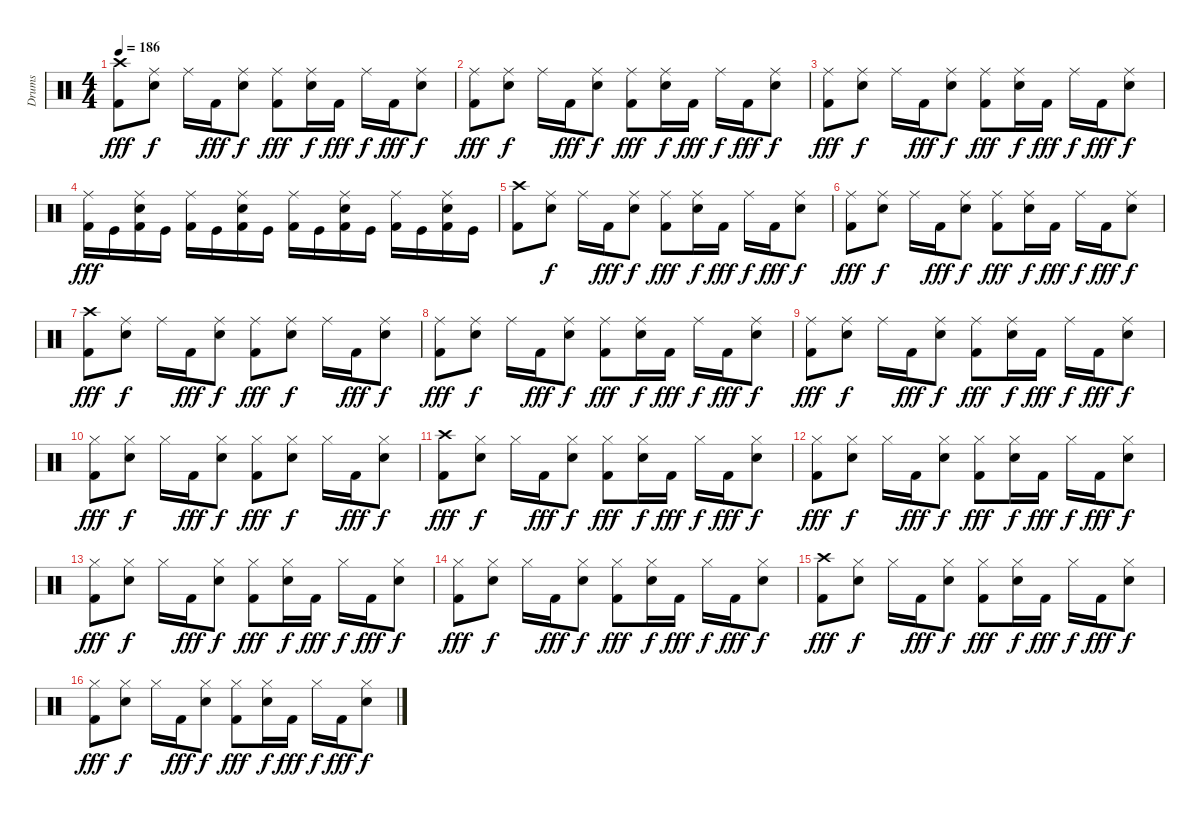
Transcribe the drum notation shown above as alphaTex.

\track ("Drums" "Drums") {instrument percussion}
\staff {score}
\articulation defaults
\ts (4 4)
\tempo 186
\clef neutral
\ks c
("Crash high (hit)" "Kick (hit) 2").8{dy fff} ("Ride (middle)" "Electric Snare (hit)").8{dy f} "Ride (middle)".16 "Kick (hit) 2".16{dy fff} ("Ride (middle)" "Electric Snare (hit)").8{dy f} ("Ride (middle)" "Kick (hit) 2").8{dy fff} ("Ride (middle)" "Electric Snare (hit)").16{dy f} "Kick (hit) 2".16{dy fff} "Ride (middle)".16{dy f} "Kick (hit) 2".16{dy fff} ("Ride (middle)" "Electric Snare (hit)").8{dy f} |
("Ride (middle)" "Kick (hit) 2").8{dy fff} ("Ride (middle)" "Electric Snare (hit)").8{dy f} "Ride (middle)".16 "Kick (hit) 2".16{dy fff} ("Ride (middle)" "Electric Snare (hit)").8{dy f} ("Ride (middle)" "Kick (hit) 2").8{dy fff} ("Ride (middle)" "Electric Snare (hit)").16{dy f} "Kick (hit) 2".16{dy fff} "Ride (middle)".16{dy f} "Kick (hit) 2".16{dy fff} ("Ride (middle)" "Electric Snare (hit)").8{dy f} |
("Ride (middle)" "Kick (hit) 2").8{dy fff} ("Ride (middle)" "Electric Snare (hit)").8{dy f} "Ride (middle)".16 "Kick (hit) 2".16{dy fff} ("Ride (middle)" "Electric Snare (hit)").8{dy f} ("Ride (middle)" "Kick (hit) 2").8{dy fff} ("Ride (middle)" "Electric Snare (hit)").16{dy f} "Kick (hit) 2".16{dy fff} "Ride (middle)".16{dy f} "Kick (hit) 2".16{dy fff} ("Ride (middle)" "Electric Snare (hit)").8{dy f} |
("Ride (middle)" "Kick (hit) 2").16{dy fff} "Kick (hit)".16 ("Ride (middle)" "Electric Snare (hit)" "Kick (hit) 2").16 "Kick (hit)".16 ("Ride (middle)" "Kick (hit) 2").16 "Kick (hit)".16 ("Ride (middle)" "Electric Snare (hit)" "Kick (hit) 2").16 "Kick (hit)".16 ("Ride (middle)" "Kick (hit) 2").16 "Kick (hit)".16 ("Ride (middle)" "Electric Snare (hit)" "Kick (hit) 2").16 "Kick (hit)".16 ("Ride (middle)" "Kick (hit) 2").16 "Kick (hit)".16 ("Ride (middle)" "Electric Snare (hit)" "Kick (hit) 2").16 "Kick (hit)".16 |
("Crash high (hit)" "Kick (hit) 2").8 ("Ride (middle)" "Electric Snare (hit)").8{dy f} "Ride (middle)".16 "Kick (hit) 2".16{dy fff} ("Ride (middle)" "Electric Snare (hit)").8{dy f} ("Ride (middle)" "Kick (hit) 2").8{dy fff} ("Ride (middle)" "Electric Snare (hit)").16{dy f} "Kick (hit) 2".16{dy fff} "Ride (middle)".16{dy f} "Kick (hit) 2".16{dy fff} ("Ride (middle)" "Electric Snare (hit)").8{dy f} |
("Ride (middle)" "Kick (hit) 2").8{dy fff} ("Ride (middle)" "Electric Snare (hit)").8{dy f} "Ride (middle)".16 "Kick (hit) 2".16{dy fff} ("Ride (middle)" "Electric Snare (hit)").8{dy f} ("Ride (middle)" "Kick (hit) 2").8{dy fff} ("Ride (middle)" "Electric Snare (hit)").16{dy f} "Kick (hit) 2".16{dy fff} "Ride (middle)".16{dy f} "Kick (hit) 2".16{dy fff} ("Ride (middle)" "Electric Snare (hit)").8{dy f} |
("Crash high (hit)" "Kick (hit) 2").8{dy fff} ("Ride (middle)" "Electric Snare (hit)").8{dy f} "Ride (middle)".16 "Kick (hit) 2".16{dy fff} ("Ride (middle)" "Electric Snare (hit)").8{dy f} ("Ride (middle)" "Kick (hit) 2").8{dy fff} ("Ride (middle)" "Electric Snare (hit)").8{dy f} "Ride (middle)".16 "Kick (hit) 2".16{dy fff} ("Ride (middle)" "Electric Snare (hit)").8{dy f} |
("Ride (middle)" "Kick (hit) 2").8{dy fff} ("Ride (middle)" "Electric Snare (hit)").8{dy f} "Ride (middle)".16 "Kick (hit) 2".16{dy fff} ("Ride (middle)" "Electric Snare (hit)").8{dy f} ("Ride (middle)" "Kick (hit) 2").8{dy fff} ("Ride (middle)" "Electric Snare (hit)").16{dy f} "Kick (hit) 2".16{dy fff} "Ride (middle)".16{dy f} "Kick (hit) 2".16{dy fff} ("Ride (middle)" "Electric Snare (hit)").8{dy f} |
("Ride (middle)" "Kick (hit) 2").8{dy fff} ("Ride (middle)" "Electric Snare (hit)").8{dy f} "Ride (middle)".16 "Kick (hit) 2".16{dy fff} ("Ride (middle)" "Electric Snare (hit)").8{dy f} ("Ride (middle)" "Kick (hit) 2").8{dy fff} ("Ride (middle)" "Electric Snare (hit)").16{dy f} "Kick (hit) 2".16{dy fff} "Ride (middle)".16{dy f} "Kick (hit) 2".16{dy fff} ("Ride (middle)" "Electric Snare (hit)").8{dy f} |
("Hi-Hat (closed)" "Kick (hit) 2").8{dy fff} ("Hi-Hat (closed)" "Electric Snare (hit)").8{dy f} "Hi-Hat (closed)".16 "Kick (hit) 2".16{dy fff} ("Hi-Hat (closed)" "Electric Snare (hit)").8{dy f} ("Hi-Hat (closed)" "Kick (hit) 2").8{dy fff} ("Hi-Hat (closed)" "Electric Snare (hit)").8{dy f} "Hi-Hat (closed)".16 "Kick (hit) 2".16{dy fff} ("Hi-Hat (closed)" "Electric Snare (hit)").8{dy f} |
("Crash high (hit)" "Kick (hit) 2").8{dy fff} ("Hi-Hat (closed)" "Electric Snare (hit)").8{dy f} "Hi-Hat (closed)".16 "Kick (hit) 2".16{dy fff} ("Hi-Hat (closed)" "Electric Snare (hit)").8{dy f} ("Hi-Hat (closed)" "Kick (hit) 2").8{dy fff} ("Hi-Hat (closed)" "Electric Snare (hit)").16{dy f} "Kick (hit) 2".16{dy fff} "Hi-Hat (closed)".16{dy f} "Kick (hit) 2".16{dy fff} ("Hi-Hat (closed)" "Electric Snare (hit)").8{dy f} |
("Hi-Hat (closed)" "Kick (hit) 2").8{dy fff} ("Hi-Hat (closed)" "Electric Snare (hit)").8{dy f} "Hi-Hat (closed)".16 "Kick (hit) 2".16{dy fff} ("Hi-Hat (closed)" "Electric Snare (hit)").8{dy f} ("Hi-Hat (closed)" "Kick (hit) 2").8{dy fff} ("Hi-Hat (closed)" "Electric Snare (hit)").16{dy f} "Kick (hit) 2".16{dy fff} "Hi-Hat (closed)".16{dy f} "Kick (hit) 2".16{dy fff} ("Hi-Hat (closed)" "Electric Snare (hit)").8{dy f} |
("Hi-Hat (closed)" "Kick (hit) 2").8{dy fff} ("Hi-Hat (closed)" "Electric Snare (hit)").8{dy f} "Hi-Hat (closed)".16 "Kick (hit) 2".16{dy fff} ("Hi-Hat (closed)" "Electric Snare (hit)").8{dy f} ("Hi-Hat (closed)" "Kick (hit) 2").8{dy fff} ("Hi-Hat (closed)" "Electric Snare (hit)").16{dy f} "Kick (hit) 2".16{dy fff} "Hi-Hat (closed)".16{dy f} "Kick (hit) 2".16{dy fff} ("Hi-Hat (closed)" "Electric Snare (hit)").8{dy f} |
("Hi-Hat (closed)" "Kick (hit) 2").8{dy fff} ("Hi-Hat (closed)" "Electric Snare (hit)").8{dy f} "Hi-Hat (closed)".16 "Kick (hit) 2".16{dy fff} ("Hi-Hat (closed)" "Electric Snare (hit)").8{dy f} ("Hi-Hat (closed)" "Kick (hit) 2").8{dy fff} ("Hi-Hat (closed)" "Electric Snare (hit)").16{dy f} "Kick (hit) 2".16{dy fff} "Hi-Hat (closed)".16{dy f} "Kick (hit) 2".16{dy fff} ("Hi-Hat (closed)" "Electric Snare (hit)").8{dy f} |
("Crash high (hit)" "Kick (hit) 2").8{dy fff} ("Hi-Hat (closed)" "Electric Snare (hit)").8{dy f} "Hi-Hat (closed)".16 "Kick (hit) 2".16{dy fff} ("Hi-Hat (closed)" "Electric Snare (hit)").8{dy f} ("Hi-Hat (closed)" "Kick (hit) 2").8{dy fff} ("Hi-Hat (closed)" "Electric Snare (hit)").16{dy f} "Kick (hit) 2".16{dy fff} "Hi-Hat (closed)".16{dy f} "Kick (hit) 2".16{dy fff} ("Hi-Hat (closed)" "Electric Snare (hit)").8{dy f} |
("Hi-Hat (closed)" "Kick (hit) 2").8{dy fff} ("Hi-Hat (closed)" "Electric Snare (hit)").8{dy f} "Hi-Hat (closed)".16 "Kick (hit) 2".16{dy fff} ("Hi-Hat (closed)" "Electric Snare (hit)").8{dy f} ("Hi-Hat (closed)" "Kick (hit) 2").8{dy fff} ("Hi-Hat (closed)" "Electric Snare (hit)").16{dy f} "Kick (hit) 2".16{dy fff} "Hi-Hat (closed)".16{dy f} "Kick (hit) 2".16{dy fff} ("Hi-Hat (closed)" "Electric Snare (hit)").8{dy f}
